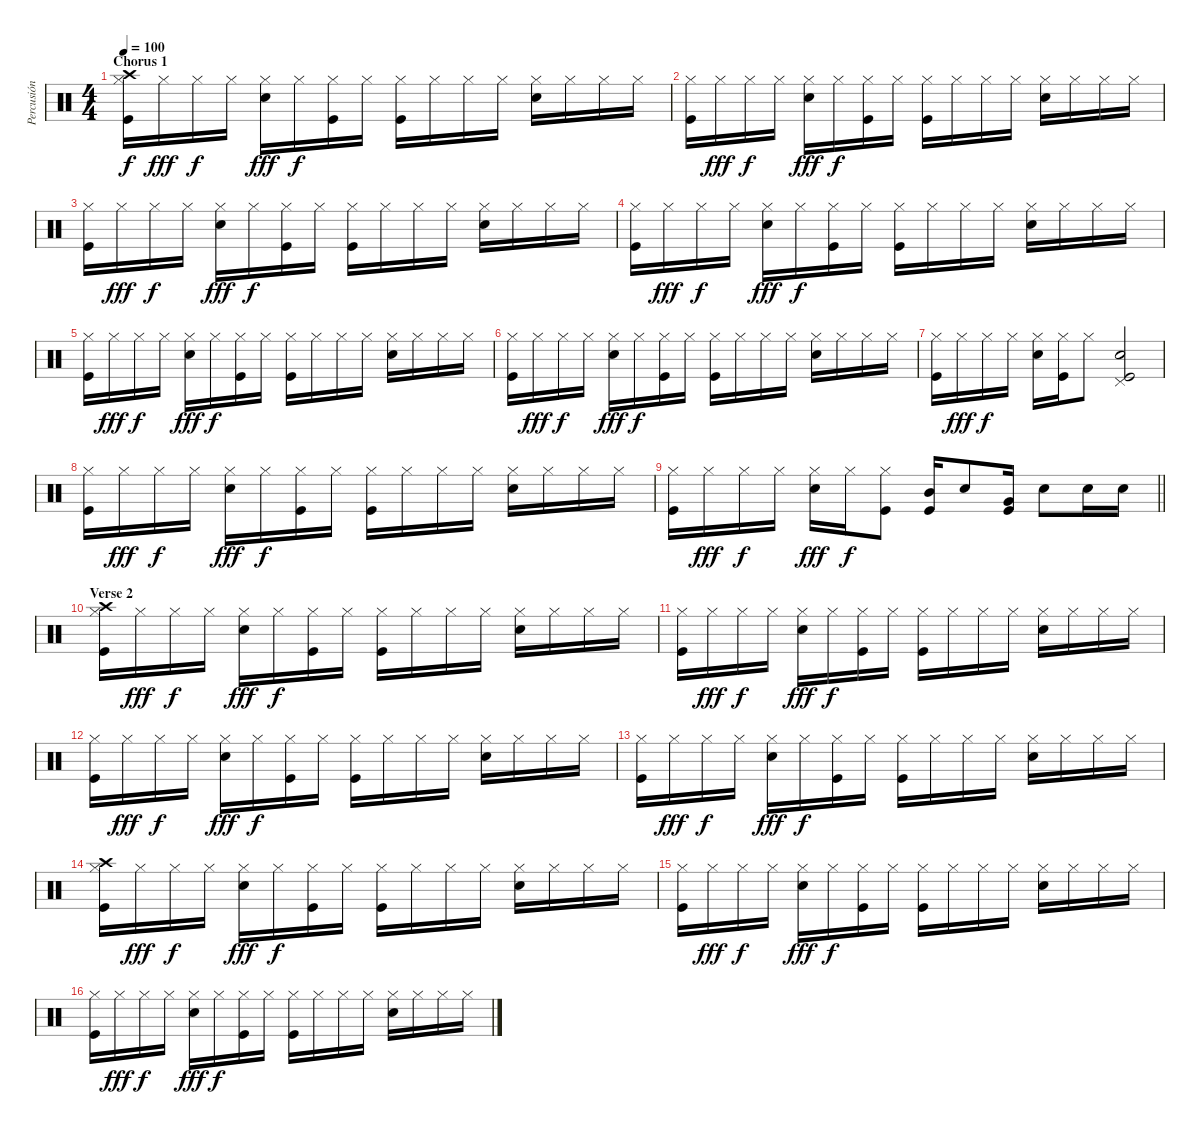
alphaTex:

\track ("Percusión" "Percusión") {instrument percussion}
\staff {score}
\articulation defaults
\ts (4 4)
\section ("" "Chorus 1")
\tempo 100
\clef neutral
\ks c
("Crash high (hit)" "Hi-Hat (closed)" "Kick (hit)").16{dy f} "Hi-Hat (closed)".16{dy fff} "Hi-Hat (closed)".16{dy f} "Hi-Hat (closed)".16 ("Snare (hit) 2" "Hi-Hat (closed)").16{dy fff} "Hi-Hat (closed)".16{dy f} ("Hi-Hat (closed)" "Kick (hit)").16 "Hi-Hat (closed)".16 ("Kick (hit)" "Hi-Hat (closed)").16 "Hi-Hat (closed)".16 "Hi-Hat (closed)".16 "Hi-Hat (closed)".16 ("Snare (hit) 2" "Hi-Hat (closed)").16 "Hi-Hat (closed)".16 "Hi-Hat (closed)".16 "Hi-Hat (closed)".16 |
("Hi-Hat (closed)" "Kick (hit)").16 "Hi-Hat (closed)".16{dy fff} "Hi-Hat (closed)".16{dy f} "Hi-Hat (closed)".16 ("Snare (hit) 2" "Hi-Hat (closed)").16{dy fff} "Hi-Hat (closed)".16{dy f} ("Hi-Hat (closed)" "Kick (hit)").16 "Hi-Hat (closed)".16 ("Kick (hit)" "Hi-Hat (closed)").16 "Hi-Hat (closed)".16 "Hi-Hat (closed)".16 "Hi-Hat (closed)".16 ("Snare (hit) 2" "Hi-Hat (closed)").16 "Hi-Hat (closed)".16 "Hi-Hat (closed)".16 "Hi-Hat (closed)".16 |
("Hi-Hat (closed)" "Kick (hit)").16 "Hi-Hat (closed)".16{dy fff} "Hi-Hat (closed)".16{dy f} "Hi-Hat (closed)".16 ("Snare (hit) 2" "Hi-Hat (closed)").16{dy fff} "Hi-Hat (closed)".16{dy f} ("Hi-Hat (closed)" "Kick (hit)").16 "Hi-Hat (closed)".16 ("Kick (hit)" "Hi-Hat (closed)").16 "Hi-Hat (closed)".16 "Hi-Hat (closed)".16 "Hi-Hat (closed)".16 ("Snare (hit) 2" "Hi-Hat (closed)").16 "Hi-Hat (closed)".16 "Hi-Hat (closed)".16 "Hi-Hat (closed)".16 |
("Hi-Hat (closed)" "Kick (hit)").16 "Hi-Hat (closed)".16{dy fff} "Hi-Hat (closed)".16{dy f} "Hi-Hat (closed)".16 ("Snare (hit) 2" "Hi-Hat (closed)").16{dy fff} "Hi-Hat (closed)".16{dy f} ("Hi-Hat (closed)" "Kick (hit)").16 "Hi-Hat (closed)".16 ("Kick (hit)" "Hi-Hat (closed)").16 "Hi-Hat (closed)".16 "Hi-Hat (closed)".16 "Hi-Hat (closed)".16 ("Snare (hit) 2" "Hi-Hat (closed)").16 "Hi-Hat (closed)".16 "Hi-Hat (closed)".16 "Hi-Hat (closed)".16 |
("Hi-Hat (closed)" "Kick (hit)").16 "Hi-Hat (closed)".16{dy fff} "Hi-Hat (closed)".16{dy f} "Hi-Hat (closed)".16 ("Snare (hit) 2" "Hi-Hat (closed)").16{dy fff} "Hi-Hat (closed)".16{dy f} ("Hi-Hat (closed)" "Kick (hit)").16 "Hi-Hat (closed)".16 ("Kick (hit)" "Hi-Hat (closed)").16 "Hi-Hat (closed)".16 "Hi-Hat (closed)".16 "Hi-Hat (closed)".16 ("Snare (hit) 2" "Hi-Hat (closed)").16 "Hi-Hat (closed)".16 "Hi-Hat (closed)".16 "Hi-Hat (closed)".16 |
("Hi-Hat (closed)" "Kick (hit)").16 "Hi-Hat (closed)".16{dy fff} "Hi-Hat (closed)".16{dy f} "Hi-Hat (closed)".16 ("Snare (hit) 2" "Hi-Hat (closed)").16{dy fff} "Hi-Hat (closed)".16{dy f} ("Hi-Hat (closed)" "Kick (hit)").16 "Hi-Hat (closed)".16 ("Kick (hit)" "Hi-Hat (closed)").16 "Hi-Hat (closed)".16 "Hi-Hat (closed)".16 "Hi-Hat (closed)".16 ("Snare (hit) 2" "Hi-Hat (closed)").16 "Hi-Hat (closed)".16 "Hi-Hat (closed)".16 "Hi-Hat (closed)".16 |
("Hi-Hat (closed)" "Kick (hit)").16 "Hi-Hat (closed)".16{dy fff} "Hi-Hat (closed)".16{dy f} "Hi-Hat (closed)".16 ("Snare (hit) 2" "Hi-Hat (closed)").16 ("Hi-Hat (closed)" "Kick (hit)").16 "Hi-Hat (closed)".8 ("Snare (hit) 2" "Pedal Hi-Hat (hit)" "Kick (hit)").2 |
("Hi-Hat (closed)" "Kick (hit)").16 "Hi-Hat (closed)".16{dy fff} "Hi-Hat (closed)".16{dy f} "Hi-Hat (closed)".16 ("Snare (hit) 2" "Hi-Hat (closed)").16{dy fff} "Hi-Hat (closed)".16{dy f} ("Hi-Hat (closed)" "Kick (hit)").16 "Hi-Hat (closed)".16 ("Kick (hit)" "Hi-Hat (closed)").16 "Hi-Hat (closed)".16 "Hi-Hat (closed)".16 "Hi-Hat (closed)".16 ("Snare (hit) 2" "Hi-Hat (closed)").16 "Hi-Hat (closed)".16 "Hi-Hat (closed)".16 "Hi-Hat (closed)".16 |
\barLineRight lightlight
("Hi-Hat (closed)" "Kick (hit)").16 "Hi-Hat (closed)".16{dy fff} "Hi-Hat (closed)".16{dy f} "Hi-Hat (closed)".16 ("Snare (hit) 2" "Hi-Hat (closed)").16{dy fff} "Hi-Hat (closed)".16{dy f} ("Hi-Hat (closed)" "Kick (hit)").8 ("Mid Tom (hit)" "Kick (hit)").16 "Electric Snare (hit)".8 ("Very Low Tom (hit)" "Kick (hit)").16 "Electric Snare (hit)".8 "Snare (hit) 2".16 "Snare (hit) 2".16 |
\section ("" "Verse 2")
("Crash high (hit)" "Hi-Hat (closed)" "Kick (hit)").16 "Hi-Hat (closed)".16{dy fff} "Hi-Hat (closed)".16{dy f} "Hi-Hat (closed)".16 ("Snare (hit) 2" "Hi-Hat (closed)").16{dy fff} "Hi-Hat (closed)".16{dy f} ("Hi-Hat (closed)" "Kick (hit)").16 "Hi-Hat (closed)".16 ("Kick (hit)" "Hi-Hat (closed)").16 "Hi-Hat (closed)".16 "Hi-Hat (closed)".16 "Hi-Hat (closed)".16 ("Snare (hit) 2" "Hi-Hat (closed)").16 "Hi-Hat (closed)".16 "Hi-Hat (closed)".16 "Hi-Hat (closed)".16 |
("Hi-Hat (closed)" "Kick (hit)").16 "Hi-Hat (closed)".16{dy fff} "Hi-Hat (closed)".16{dy f} "Hi-Hat (closed)".16 ("Snare (hit) 2" "Hi-Hat (closed)").16{dy fff} "Hi-Hat (closed)".16{dy f} ("Hi-Hat (closed)" "Kick (hit)").16 "Hi-Hat (closed)".16 ("Kick (hit)" "Hi-Hat (closed)").16 "Hi-Hat (closed)".16 "Hi-Hat (closed)".16 "Hi-Hat (closed)".16 ("Snare (hit) 2" "Hi-Hat (closed)").16 "Hi-Hat (closed)".16 "Hi-Hat (closed)".16 "Hi-Hat (closed)".16 |
("Hi-Hat (closed)" "Kick (hit)").16 "Hi-Hat (closed)".16{dy fff} "Hi-Hat (closed)".16{dy f} "Hi-Hat (closed)".16 ("Snare (hit) 2" "Hi-Hat (closed)").16{dy fff} "Hi-Hat (closed)".16{dy f} ("Hi-Hat (closed)" "Kick (hit)").16 "Hi-Hat (closed)".16 ("Kick (hit)" "Hi-Hat (closed)").16 "Hi-Hat (closed)".16 "Hi-Hat (closed)".16 "Hi-Hat (closed)".16 ("Snare (hit) 2" "Hi-Hat (closed)").16 "Hi-Hat (closed)".16 "Hi-Hat (closed)".16 "Hi-Hat (closed)".16 |
("Hi-Hat (closed)" "Kick (hit)").16 "Hi-Hat (closed)".16{dy fff} "Hi-Hat (closed)".16{dy f} "Hi-Hat (closed)".16 ("Snare (hit) 2" "Hi-Hat (closed)").16{dy fff} "Hi-Hat (closed)".16{dy f} ("Hi-Hat (closed)" "Kick (hit)").16 "Hi-Hat (closed)".16 ("Kick (hit)" "Hi-Hat (closed)").16 "Hi-Hat (closed)".16 "Hi-Hat (closed)".16 "Hi-Hat (closed)".16 ("Snare (hit) 2" "Hi-Hat (closed)").16 "Hi-Hat (closed)".16 "Hi-Hat (closed)".16 "Hi-Hat (closed)".16 |
("Crash high (hit)" "Hi-Hat (closed)" "Kick (hit)").16 "Hi-Hat (closed)".16{dy fff} "Hi-Hat (closed)".16{dy f} "Hi-Hat (closed)".16 ("Snare (hit) 2" "Hi-Hat (closed)").16{dy fff} "Hi-Hat (closed)".16{dy f} ("Hi-Hat (closed)" "Kick (hit)").16 "Hi-Hat (closed)".16 ("Kick (hit)" "Hi-Hat (closed)").16 "Hi-Hat (closed)".16 "Hi-Hat (closed)".16 "Hi-Hat (closed)".16 ("Snare (hit) 2" "Hi-Hat (closed)").16 "Hi-Hat (closed)".16 "Hi-Hat (closed)".16 "Hi-Hat (closed)".16 |
("Hi-Hat (closed)" "Kick (hit)").16 "Hi-Hat (closed)".16{dy fff} "Hi-Hat (closed)".16{dy f} "Hi-Hat (closed)".16 ("Snare (hit) 2" "Hi-Hat (closed)").16{dy fff} "Hi-Hat (closed)".16{dy f} ("Hi-Hat (closed)" "Kick (hit)").16 "Hi-Hat (closed)".16 ("Kick (hit)" "Hi-Hat (closed)").16 "Hi-Hat (closed)".16 "Hi-Hat (closed)".16 "Hi-Hat (closed)".16 ("Snare (hit) 2" "Hi-Hat (closed)").16 "Hi-Hat (closed)".16 "Hi-Hat (closed)".16 "Hi-Hat (closed)".16 |
("Hi-Hat (closed)" "Kick (hit)").16 "Hi-Hat (closed)".16{dy fff} "Hi-Hat (closed)".16{dy f} "Hi-Hat (closed)".16 ("Snare (hit) 2" "Hi-Hat (closed)").16{dy fff} "Hi-Hat (closed)".16{dy f} ("Hi-Hat (closed)" "Kick (hit)").16 "Hi-Hat (closed)".16 ("Kick (hit)" "Hi-Hat (closed)").16 "Hi-Hat (closed)".16 "Hi-Hat (closed)".16 "Hi-Hat (closed)".16 ("Snare (hit) 2" "Hi-Hat (closed)").16 "Hi-Hat (closed)".16 "Hi-Hat (closed)".16 "Hi-Hat (closed)".16
